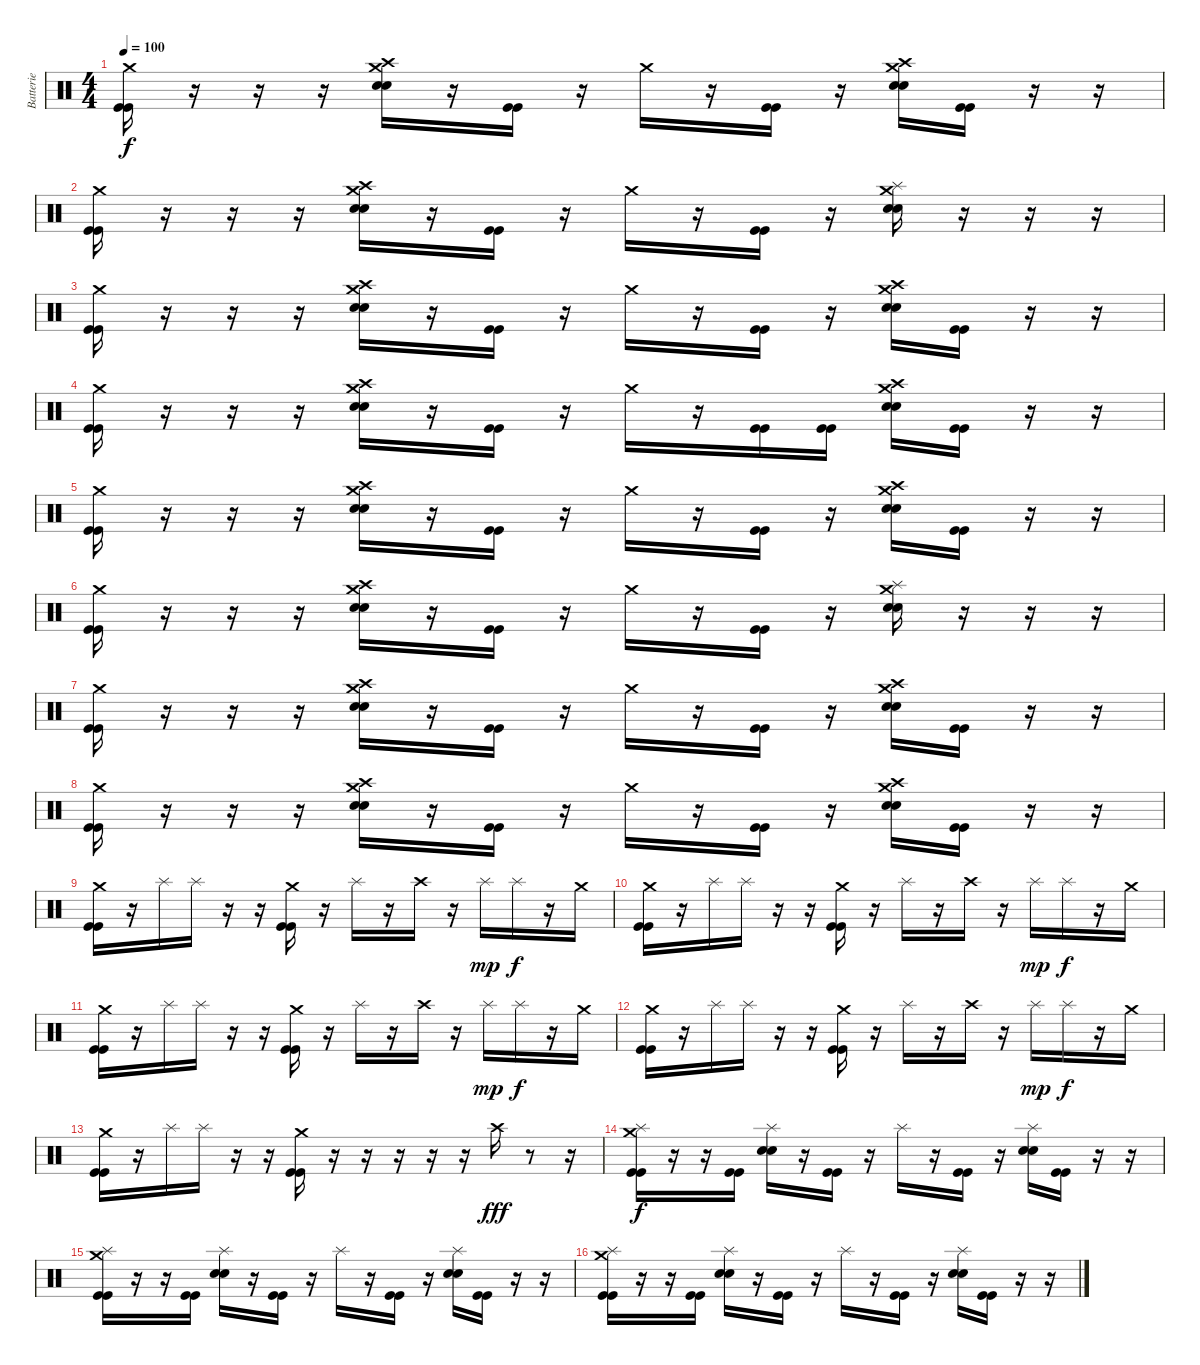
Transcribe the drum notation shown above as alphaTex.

\track ("Batterie" "Batterie") {instrument percussion}
\staff {score}
\articulation defaults
\ts (4 4)
\tempo 100
\clef neutral
\ks c
("Crash medium (hit)" "Kick (hit)" "Kick (hit)").16{dy f} r.16 r.16 r.16 ("Crash medium (hit)" "Crash high (hit)" "Electric Snare (hit)" "Electric Snare (hit)").16 r.16 ("Kick (hit)" "Kick (hit)").16 r.16 "Crash medium (hit)".16 r.16 ("Kick (hit)" "Kick (hit)").16 r.16 ("Crash medium (hit)" "Crash high (hit)" "Electric Snare (hit)" "Electric Snare (hit)").16 ("Kick (hit)" "Kick (hit)").16 r.16 r.16 |
("Crash medium (hit)" "Kick (hit)" "Kick (hit)").16 r.16 r.16 r.16 ("Crash medium (hit)" "Crash high (hit)" "Electric Snare (hit)" "Electric Snare (hit)").16 r.16 ("Kick (hit)" "Kick (hit)").16 r.16 "Crash medium (hit)".16 r.16 ("Kick (hit)" "Kick (hit)").16 r.16 ("Crash medium (hit)" "Splash (hit)" "Electric Snare (hit)" "Electric Snare (hit)").16 r.16 r.16 r.16 |
("Crash medium (hit)" "Kick (hit)" "Kick (hit)").16 r.16 r.16 r.16 ("Crash medium (hit)" "Crash high (hit)" "Electric Snare (hit)" "Electric Snare (hit)").16 r.16 ("Kick (hit)" "Kick (hit)").16 r.16 "Crash medium (hit)".16 r.16 ("Kick (hit)" "Kick (hit)").16 r.16 ("Crash medium (hit)" "Crash high (hit)" "Electric Snare (hit)" "Electric Snare (hit)").16 ("Kick (hit)" "Kick (hit)").16 r.16 r.16 |
("Crash medium (hit)" "Kick (hit)" "Kick (hit)").16 r.16 r.16 r.16 ("Crash medium (hit)" "Crash high (hit)" "Electric Snare (hit)" "Electric Snare (hit)").16 r.16 ("Kick (hit)" "Kick (hit)").16 r.16 "Crash medium (hit)".16 r.16 ("Kick (hit)" "Kick (hit)").16 ("Kick (hit)" "Kick (hit)").16 ("Crash medium (hit)" "Crash high (hit)" "Electric Snare (hit)" "Electric Snare (hit)").16 ("Kick (hit)" "Kick (hit)").16 r.16 r.16 |
("Crash medium (hit)" "Kick (hit)" "Kick (hit)").16 r.16 r.16 r.16 ("Crash medium (hit)" "Crash high (hit)" "Electric Snare (hit)" "Electric Snare (hit)").16 r.16 ("Kick (hit)" "Kick (hit)").16 r.16 "Crash medium (hit)".16 r.16 ("Kick (hit)" "Kick (hit)").16 r.16 ("Crash medium (hit)" "Crash high (hit)" "Electric Snare (hit)" "Electric Snare (hit)").16 ("Kick (hit)" "Kick (hit)").16 r.16 r.16 |
("Crash medium (hit)" "Kick (hit)" "Kick (hit)").16 r.16 r.16 r.16 ("Crash medium (hit)" "Crash high (hit)" "Electric Snare (hit)" "Electric Snare (hit)").16 r.16 ("Kick (hit)" "Kick (hit)").16 r.16 "Crash medium (hit)".16 r.16 ("Kick (hit)" "Kick (hit)").16 r.16 ("Crash medium (hit)" "Splash (hit)" "Electric Snare (hit)" "Electric Snare (hit)").16 r.16 r.16 r.16 |
("Crash medium (hit)" "Kick (hit)" "Kick (hit)").16 r.16 r.16 r.16 ("Crash medium (hit)" "Crash high (hit)" "Electric Snare (hit)" "Electric Snare (hit)").16 r.16 ("Kick (hit)" "Kick (hit)").16 r.16 "Crash medium (hit)".16 r.16 ("Kick (hit)" "Kick (hit)").16 r.16 ("Crash medium (hit)" "Crash high (hit)" "Electric Snare (hit)" "Electric Snare (hit)").16 ("Kick (hit)" "Kick (hit)").16 r.16 r.16 |
("Crash medium (hit)" "Kick (hit)" "Kick (hit)").16 r.16 r.16 r.16 ("Crash medium (hit)" "Crash high (hit)" "Electric Snare (hit)" "Electric Snare (hit)").16 r.16 ("Kick (hit)" "Kick (hit)").16 r.16 "Crash medium (hit)".16 r.16 ("Kick (hit)" "Kick (hit)").16 r.16 ("Crash medium (hit)" "Crash high (hit)" "Electric Snare (hit)" "Electric Snare (hit)").16 ("Kick (hit)" "Kick (hit)").16 r.16 r.16 |
("Crash medium (hit)" "Kick (hit)" "Kick (hit)").16 r.16 "Splash (hit)".16 "Splash (hit)".16 r.16 r.16 ("Crash medium (hit)" "Kick (hit)" "Kick (hit)").16 r.16 "Splash (hit)".16 r.16 "Crash high (hit)".16 r.16 "Splash (hit)".16{dy mp} "Splash (hit)".16{dy f} r.16 "Crash medium (hit)".16 |
("Crash medium (hit)" "Kick (hit)" "Kick (hit)").16 r.16 "Splash (hit)".16 "Splash (hit)".16 r.16 r.16 ("Crash medium (hit)" "Kick (hit)" "Kick (hit)").16 r.16 "Splash (hit)".16 r.16 "Crash high (hit)".16 r.16 "Splash (hit)".16{dy mp} "Splash (hit)".16{dy f} r.16 "Crash medium (hit)".16 |
("Crash medium (hit)" "Kick (hit)" "Kick (hit)").16 r.16 "Splash (hit)".16 "Splash (hit)".16 r.16 r.16 ("Crash medium (hit)" "Kick (hit)" "Kick (hit)").16 r.16 "Splash (hit)".16 r.16 "Crash high (hit)".16 r.16 "Splash (hit)".16{dy mp} "Splash (hit)".16{dy f} r.16 "Crash medium (hit)".16 |
("Crash medium (hit)" "Kick (hit)" "Kick (hit)").16 r.16 "Splash (hit)".16 "Splash (hit)".16 r.16 r.16 ("Crash medium (hit)" "Kick (hit)" "Kick (hit)").16 r.16 "Splash (hit)".16 r.16 "Crash high (hit)".16 r.16 "Splash (hit)".16{dy mp} "Splash (hit)".16{dy f} r.16 "Crash medium (hit)".16 |
("Crash medium (hit)" "Kick (hit)" "Kick (hit)").16 r.16 "Splash (hit)".16 "Splash (hit)".16 r.16 r.16 ("Crash medium (hit)" "Kick (hit)" "Kick (hit)").16 r.16 r.16 r.16 r.16 r.16 "Crash high (hit)".16{dy fff} r.8 r.16 |
("Splash (hit)" "Crash medium (hit)" "Kick (hit)" "Kick (hit)").16{dy f} r.16 r.16 ("Kick (hit)" "Kick (hit)").16 ("Splash (hit)" "Electric Snare (hit)" "Electric Snare (hit)").16 r.16 ("Kick (hit)" "Kick (hit)").16 r.16 "Splash (hit)".16 r.16 ("Kick (hit)" "Kick (hit)").16 r.16 ("Splash (hit)" "Electric Snare (hit)" "Electric Snare (hit)").16 ("Kick (hit)" "Kick (hit)").16 r.16 r.16 |
("Splash (hit)" "Crash medium (hit)" "Kick (hit)" "Kick (hit)").16 r.16 r.16 ("Kick (hit)" "Kick (hit)").16 ("Splash (hit)" "Electric Snare (hit)" "Electric Snare (hit)").16 r.16 ("Kick (hit)" "Kick (hit)").16 r.16 "Splash (hit)".16 r.16 ("Kick (hit)" "Kick (hit)").16 r.16 ("Splash (hit)" "Electric Snare (hit)" "Electric Snare (hit)").16 ("Kick (hit)" "Kick (hit)").16 r.16 r.16 |
("Splash (hit)" "Crash medium (hit)" "Kick (hit)" "Kick (hit)").16 r.16 r.16 ("Kick (hit)" "Kick (hit)").16 ("Splash (hit)" "Electric Snare (hit)" "Electric Snare (hit)").16 r.16 ("Kick (hit)" "Kick (hit)").16 r.16 "Splash (hit)".16 r.16 ("Kick (hit)" "Kick (hit)").16 r.16 ("Splash (hit)" "Electric Snare (hit)" "Electric Snare (hit)").16 ("Kick (hit)" "Kick (hit)").16 r.16 r.16
